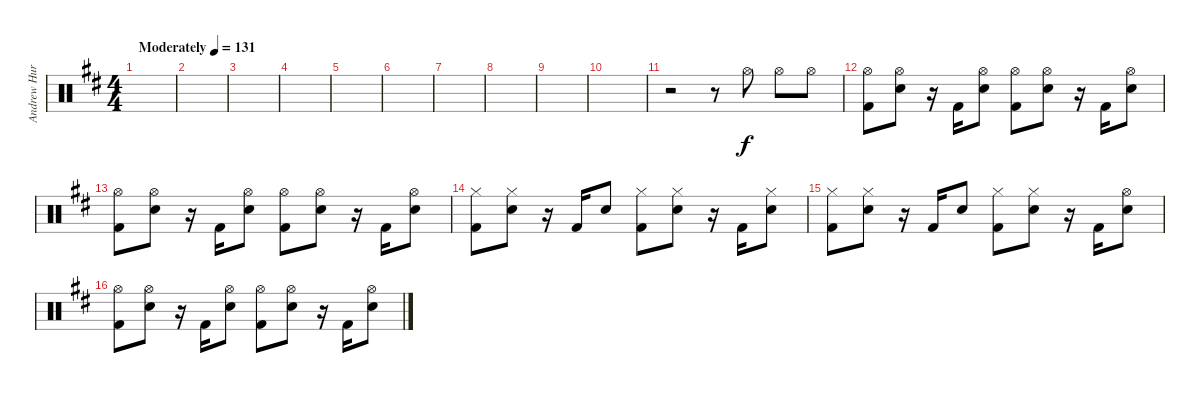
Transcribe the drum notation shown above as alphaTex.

\track ("Andrew Hurley" "Andrew Hur") {instrument percussion}
\staff {score}
\articulation defaults
\ts (4 4)
\tempo (131 "Moderately")
\clef neutral
\ks d
|
|
|
|
|
|
|
|
|
|
r.2 r.8 "Hi-Hat (open)".8 "Hi-Hat (open)".8 "Hi-Hat (open)".8 |
("Hi-Hat (open)" "Kick (hit) 2").8 ("Hi-Hat (open)" "Electric Snare (hit)").8 r.16 "Kick (hit) 2".16 ("Hi-Hat (open)" "Electric Snare (hit)").8 ("Hi-Hat (open)" "Kick (hit) 2").8 ("Hi-Hat (open)" "Electric Snare (hit)").8 r.16 "Kick (hit) 2".16 ("Hi-Hat (open)" "Electric Snare (hit)").8 |
("Hi-Hat (open)" "Kick (hit) 2").8 ("Hi-Hat (open)" "Electric Snare (hit)").8 r.16 "Kick (hit) 2".16 ("Hi-Hat (open)" "Electric Snare (hit)").8 ("Hi-Hat (open)" "Kick (hit) 2").8 ("Hi-Hat (open)" "Electric Snare (hit)").8 r.16 "Kick (hit) 2".16 ("Hi-Hat (open)" "Electric Snare (hit)").8 |
("Hi-Hat (closed)" "Kick (hit) 2").8 ("Hi-Hat (closed)" "Electric Snare (hit)").8 r.16 "Kick (hit) 2".16 "Electric Snare (hit)".8 ("Hi-Hat (closed)" "Kick (hit) 2").8 ("Hi-Hat (closed)" "Electric Snare (hit)").8 r.16 "Kick (hit) 2".16 ("Hi-Hat (closed)" "Electric Snare (hit)").8 |
("Hi-Hat (closed)" "Kick (hit) 2").8 ("Hi-Hat (closed)" "Electric Snare (hit)").8 r.16 "Kick (hit) 2".16 "Electric Snare (hit)".8 ("Hi-Hat (closed)" "Kick (hit) 2").8 ("Hi-Hat (closed)" "Electric Snare (hit)").8 r.16 "Kick (hit) 2".16 ("Hi-Hat (open)" "Electric Snare (hit)").8 |
("Hi-Hat (open)" "Kick (hit) 2").8 ("Hi-Hat (open)" "Electric Snare (hit)").8 r.16 "Kick (hit) 2".16 ("Hi-Hat (open)" "Electric Snare (hit)").8 ("Hi-Hat (open)" "Kick (hit) 2").8 ("Hi-Hat (open)" "Electric Snare (hit)").8 r.16 "Kick (hit) 2".16 ("Hi-Hat (open)" "Electric Snare (hit)").8
